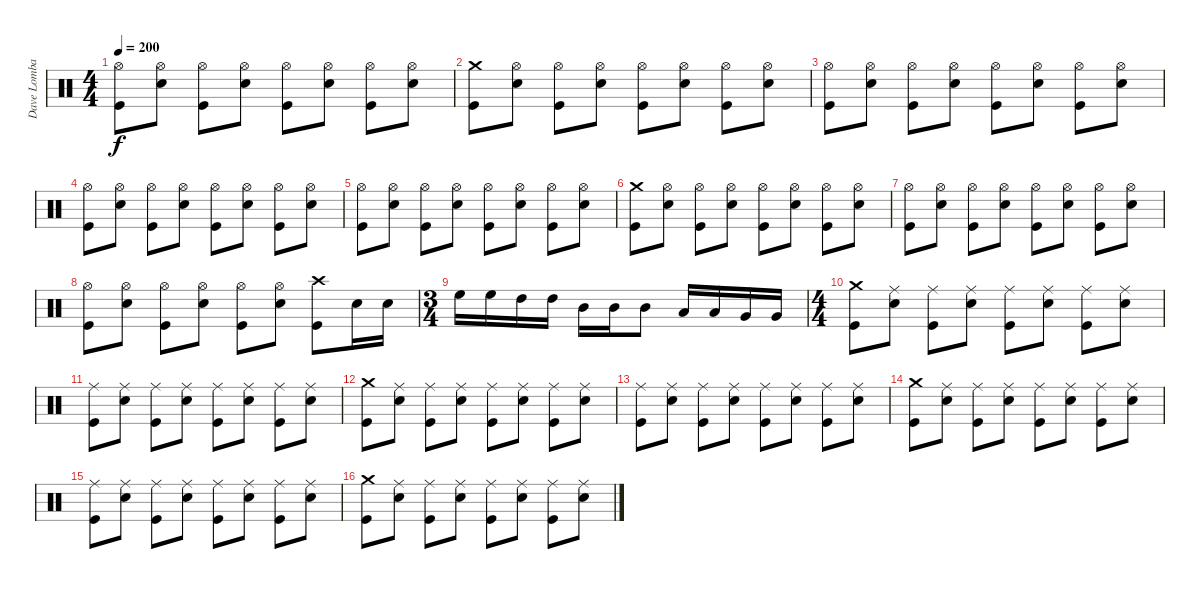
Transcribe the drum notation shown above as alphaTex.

\track ("Dave Lombardo" "Dave Lomba") {instrument percussion}
\staff {score}
\articulation defaults
\ts (4 4)
\tempo 200
\clef neutral
\ks c
("Hi-Hat (open)" "Kick (hit)").8{dy f} ("Hi-Hat (open)" "Snare (hit) 2").8 ("Hi-Hat (open)" "Kick (hit)").8 ("Hi-Hat (open)" "Snare (hit) 2").8 ("Hi-Hat (open)" "Kick (hit)").8 ("Hi-Hat (open)" "Snare (hit) 2").8 ("Hi-Hat (open)" "Kick (hit)").8 ("Hi-Hat (open)" "Snare (hit) 2").8 |
("Crash medium (hit)" "Kick (hit)").8 ("Hi-Hat (open)" "Snare (hit) 2").8 ("Hi-Hat (open)" "Kick (hit)").8 ("Hi-Hat (open)" "Snare (hit) 2").8 ("Hi-Hat (open)" "Kick (hit)").8 ("Hi-Hat (open)" "Snare (hit) 2").8 ("Hi-Hat (open)" "Kick (hit)").8 ("Hi-Hat (open)" "Snare (hit) 2").8 |
("Hi-Hat (open)" "Kick (hit)").8 ("Hi-Hat (open)" "Snare (hit) 2").8 ("Hi-Hat (open)" "Kick (hit)").8 ("Hi-Hat (open)" "Snare (hit) 2").8 ("Hi-Hat (open)" "Kick (hit)").8 ("Hi-Hat (open)" "Snare (hit) 2").8 ("Hi-Hat (open)" "Kick (hit)").8 ("Hi-Hat (open)" "Snare (hit) 2").8 |
("Hi-Hat (open)" "Kick (hit)").8 ("Hi-Hat (open)" "Snare (hit) 2").8 ("Hi-Hat (open)" "Kick (hit)").8 ("Hi-Hat (open)" "Snare (hit) 2").8 ("Hi-Hat (open)" "Kick (hit)").8 ("Hi-Hat (open)" "Snare (hit) 2").8 ("Hi-Hat (open)" "Kick (hit)").8 ("Hi-Hat (open)" "Snare (hit) 2").8 |
("Hi-Hat (open)" "Kick (hit)").8 ("Hi-Hat (open)" "Snare (hit) 2").8 ("Hi-Hat (open)" "Kick (hit)").8 ("Hi-Hat (open)" "Snare (hit) 2").8 ("Hi-Hat (open)" "Kick (hit)").8 ("Hi-Hat (open)" "Snare (hit) 2").8 ("Hi-Hat (open)" "Kick (hit)").8 ("Hi-Hat (open)" "Snare (hit) 2").8 |
("Crash medium (hit)" "Kick (hit)").8 ("Hi-Hat (open)" "Snare (hit) 2").8 ("Hi-Hat (open)" "Kick (hit)").8 ("Hi-Hat (open)" "Snare (hit) 2").8 ("Hi-Hat (open)" "Kick (hit)").8 ("Hi-Hat (open)" "Snare (hit) 2").8 ("Hi-Hat (open)" "Kick (hit)").8 ("Hi-Hat (open)" "Snare (hit) 2").8 |
("Hi-Hat (open)" "Kick (hit)").8 ("Hi-Hat (open)" "Snare (hit) 2").8 ("Hi-Hat (open)" "Kick (hit)").8 ("Hi-Hat (open)" "Snare (hit) 2").8 ("Hi-Hat (open)" "Kick (hit)").8 ("Hi-Hat (open)" "Snare (hit) 2").8 ("Hi-Hat (open)" "Kick (hit)").8 ("Hi-Hat (open)" "Snare (hit) 2").8 |
("Hi-Hat (open)" "Kick (hit)").8 ("Hi-Hat (open)" "Snare (hit) 2").8 ("Hi-Hat (open)" "Kick (hit)").8 ("Hi-Hat (open)" "Snare (hit) 2").8 ("Hi-Hat (open)" "Kick (hit)").8 ("Hi-Hat (open)" "Snare (hit) 2").8 ("Crash high (hit)" "Kick (hit)").8 "Snare (hit) 2".16 "Snare (hit) 2".16 |
\ts (3 4)
"High Floor Tom (hit)".16 "High Floor Tom (hit)".16 "High Tom (hit)".16 "High Tom (hit)".16 "Mid Tom (hit)".16 "Mid Tom (hit)".16 "Mid Tom (hit)".8 "Low Tom (hit)".16 "Low Tom (hit)".16 "Very Low Tom (hit)".16 "Very Low Tom (hit)".16 |
\ts (4 4)
("Crash medium (hit)" "Kick (hit)").8 ("Ride (middle)" "Snare (hit) 2").8 ("Ride (middle)" "Kick (hit)").8 ("Ride (middle)" "Snare (hit) 2").8 ("Ride (middle)" "Kick (hit)").8 ("Ride (middle)" "Snare (hit) 2").8 ("Ride (middle)" "Kick (hit)").8 ("Ride (middle)" "Snare (hit) 2").8 |
("Ride (middle)" "Kick (hit)").8 ("Ride (middle)" "Snare (hit) 2").8 ("Ride (middle)" "Kick (hit)").8 ("Ride (middle)" "Snare (hit) 2").8 ("Ride (middle)" "Kick (hit)").8 ("Ride (middle)" "Snare (hit) 2").8 ("Ride (middle)" "Kick (hit)").8 ("Ride (middle)" "Snare (hit) 2").8 |
("Crash medium (hit)" "Kick (hit)").8 ("Ride (middle)" "Snare (hit) 2").8 ("Ride (middle)" "Kick (hit)").8 ("Ride (middle)" "Snare (hit) 2").8 ("Ride (middle)" "Kick (hit)").8 ("Ride (middle)" "Snare (hit) 2").8 ("Ride (middle)" "Kick (hit)").8 ("Ride (middle)" "Snare (hit) 2").8 |
("Ride (middle)" "Kick (hit)").8 ("Ride (middle)" "Snare (hit) 2").8 ("Ride (middle)" "Kick (hit)").8 ("Ride (middle)" "Snare (hit) 2").8 ("Ride (middle)" "Kick (hit)").8 ("Ride (middle)" "Snare (hit) 2").8 ("Ride (middle)" "Kick (hit)").8 ("Ride (middle)" "Snare (hit) 2").8 |
("Crash medium (hit)" "Kick (hit)").8 ("Ride (middle)" "Snare (hit) 2").8 ("Ride (middle)" "Kick (hit)").8 ("Ride (middle)" "Snare (hit) 2").8 ("Ride (middle)" "Kick (hit)").8 ("Ride (middle)" "Snare (hit) 2").8 ("Ride (middle)" "Kick (hit)").8 ("Ride (middle)" "Snare (hit) 2").8 |
("Ride (middle)" "Kick (hit)").8 ("Ride (middle)" "Snare (hit) 2").8 ("Ride (middle)" "Kick (hit)").8 ("Ride (middle)" "Snare (hit) 2").8 ("Ride (middle)" "Kick (hit)").8 ("Ride (middle)" "Snare (hit) 2").8 ("Ride (middle)" "Kick (hit)").8 ("Ride (middle)" "Snare (hit) 2").8 |
("Crash medium (hit)" "Kick (hit)").8 ("Ride (middle)" "Snare (hit) 2").8 ("Ride (middle)" "Kick (hit)").8 ("Ride (middle)" "Snare (hit) 2").8 ("Ride (middle)" "Kick (hit)").8 ("Ride (middle)" "Snare (hit) 2").8 ("Ride (middle)" "Kick (hit)").8 ("Ride (middle)" "Snare (hit) 2").8
